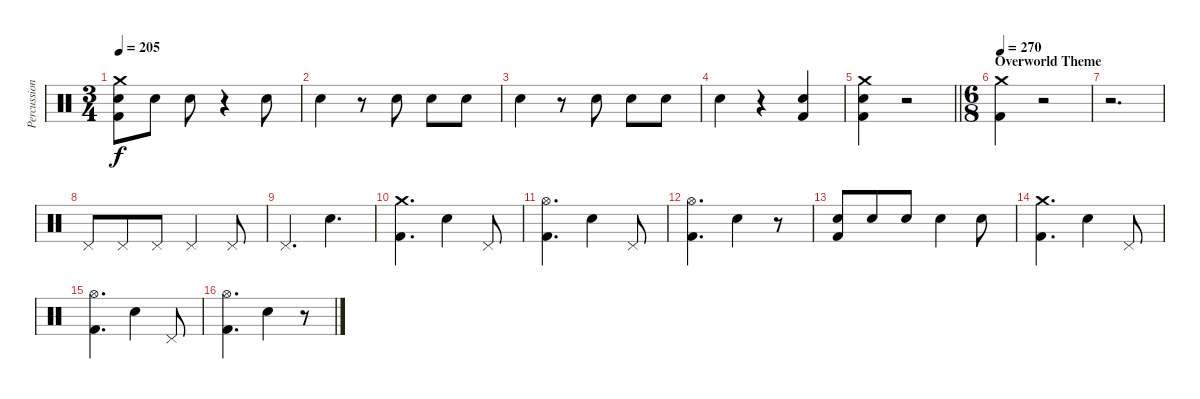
\track ("Percussion" "Percussion") {instrument percussion}
\staff {score}
\articulation defaults
\ts (3 4)
\tempo 205
\clef neutral
\ks c
("Crash medium (hit)" "Electric Snare (hit)" "Kick (hit) 2").8{dy f} "Electric Snare (hit)".8 "Electric Snare (hit)".8 r.4 "Electric Snare (hit)".8 |
"Electric Snare (hit)".4 r.8 "Electric Snare (hit)".8 "Electric Snare (hit)".8 "Electric Snare (hit)".8 |
"Electric Snare (hit)".4 r.8 "Electric Snare (hit)".8 "Electric Snare (hit)".8 "Electric Snare (hit)".8 |
"Electric Snare (hit)".4 r.4 ("Electric Snare (hit)" "Kick (hit) 2").4 |
\barLineRight lightlight
("Crash medium (hit)" "Electric Snare (hit)" "Kick (hit) 2").4 r.2 |
\ts (6 8)
\section ("" "Overworld Theme")
\tempo 270
("Crash medium (hit)" "Kick (hit) 2").4 r.2 |
r.2{d} |
"Pedal Hi-Hat (hit)".8 "Pedal Hi-Hat (hit)".8 "Pedal Hi-Hat (hit)".8 "Pedal Hi-Hat (hit)".4 "Pedal Hi-Hat (hit)".8 |
"Pedal Hi-Hat (hit)".4{d} "Electric Snare (hit)".4{d} |
("Crash medium (hit)" "Kick (hit) 2").4{d} "Electric Snare (hit)".4 "Pedal Hi-Hat (hit)".8 |
("Hi-Hat (open)" "Kick (hit) 2").4{d} "Electric Snare (hit)".4 "Pedal Hi-Hat (hit)".8 |
("Hi-Hat (open)" "Kick (hit) 2").4{d} "Electric Snare (hit)".4 r.8 |
("Snare (hit) 2" "Kick (hit) 2").8 "Electric Snare (hit)".8 "Electric Snare (hit)".8 "Electric Snare (hit)".4 "Electric Snare (hit)".8 |
("Crash medium (hit)" "Kick (hit) 2").4{d} "Electric Snare (hit)".4 "Pedal Hi-Hat (hit)".8 |
("Hi-Hat (open)" "Kick (hit) 2").4{d} "Electric Snare (hit)".4 "Pedal Hi-Hat (hit)".8 |
("Hi-Hat (open)" "Kick (hit) 2").4{d} "Electric Snare (hit)".4 r.8
